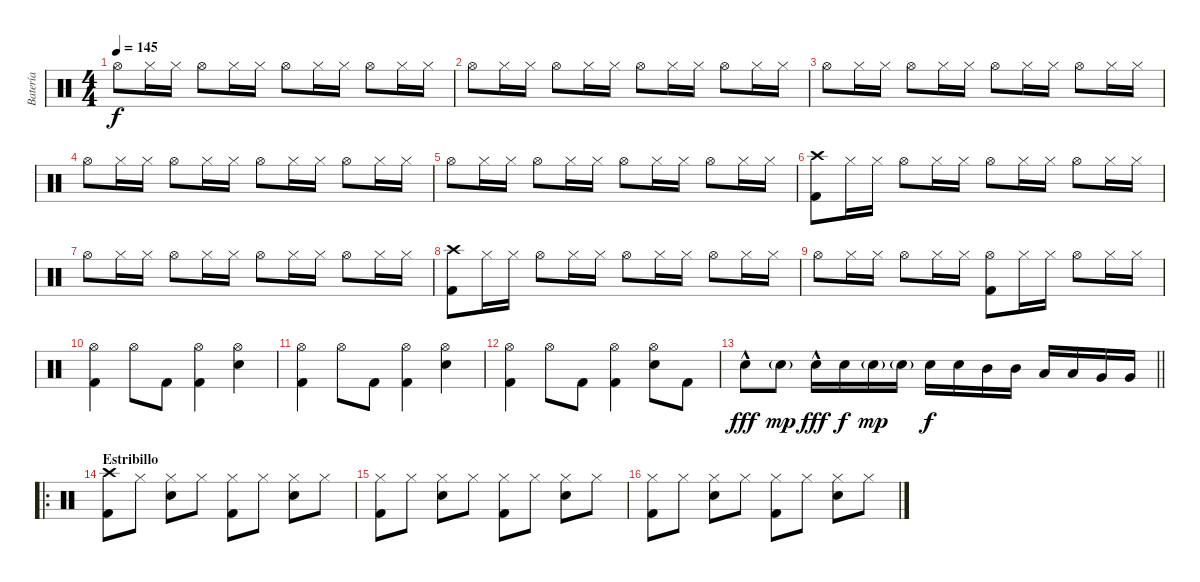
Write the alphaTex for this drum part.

\track ("Batería" "Batería") {instrument percussion}
\staff {score}
\articulation defaults
\ts (4 4)
\tempo 145
\clef neutral
\ks c "Hi-Hat (open)".8{dy f} "Hi-Hat (closed)".16 "Hi-Hat (closed)".16 "Hi-Hat (open)".8 "Hi-Hat (closed)".16 "Hi-Hat (closed)".16 "Hi-Hat (open)".8 "Hi-Hat (closed)".16 "Hi-Hat (closed)".16 "Hi-Hat (open)".8 "Hi-Hat (closed)".16 "Hi-Hat (closed)".16
|
"Hi-Hat (open)".8 "Hi-Hat (closed)".16 "Hi-Hat (closed)".16 "Hi-Hat (open)".8 "Hi-Hat (closed)".16 "Hi-Hat (closed)".16 "Hi-Hat (open)".8 "Hi-Hat (closed)".16 "Hi-Hat (closed)".16 "Hi-Hat (open)".8 "Hi-Hat (closed)".16 "Hi-Hat (closed)".16 |
"Hi-Hat (open)".8 "Hi-Hat (closed)".16 "Hi-Hat (closed)".16 "Hi-Hat (open)".8 "Hi-Hat (closed)".16 "Hi-Hat (closed)".16 "Hi-Hat (open)".8 "Hi-Hat (closed)".16 "Hi-Hat (closed)".16 "Hi-Hat (open)".8 "Hi-Hat (closed)".16 "Hi-Hat (closed)".16 |
"Hi-Hat (open)".8 "Hi-Hat (closed)".16 "Hi-Hat (closed)".16 "Hi-Hat (open)".8 "Hi-Hat (closed)".16 "Hi-Hat (closed)".16 "Hi-Hat (open)".8 "Hi-Hat (closed)".16 "Hi-Hat (closed)".16 "Hi-Hat (open)".8 "Hi-Hat (closed)".16 "Hi-Hat (closed)".16 |
"Hi-Hat (open)".8 "Hi-Hat (closed)".16 "Hi-Hat (closed)".16 "Hi-Hat (open)".8 "Hi-Hat (closed)".16 "Hi-Hat (closed)".16 "Hi-Hat (open)".8 "Hi-Hat (closed)".16 "Hi-Hat (closed)".16 "Hi-Hat (open)".8 "Hi-Hat (closed)".16 "Hi-Hat (closed)".16 |
("Crash high (hit)" "Kick (hit) 2").8 "Hi-Hat (closed)".16 "Hi-Hat (closed)".16 "Hi-Hat (open)".8 "Hi-Hat (closed)".16 "Hi-Hat (closed)".16 "Hi-Hat (open)".8 "Hi-Hat (closed)".16 "Hi-Hat (closed)".16 "Hi-Hat (open)".8 "Hi-Hat (closed)".16 "Hi-Hat (closed)".16 |
"Hi-Hat (open)".8 "Hi-Hat (closed)".16 "Hi-Hat (closed)".16 "Hi-Hat (open)".8 "Hi-Hat (closed)".16 "Hi-Hat (closed)".16 "Hi-Hat (open)".8 "Hi-Hat (closed)".16 "Hi-Hat (closed)".16 "Hi-Hat (open)".8 "Hi-Hat (closed)".16 "Hi-Hat (closed)".16 |
("Crash high (hit)" "Kick (hit) 2").8 "Hi-Hat (closed)".16 "Hi-Hat (closed)".16 "Hi-Hat (open)".8 "Hi-Hat (closed)".16 "Hi-Hat (closed)".16 "Hi-Hat (open)".8 "Hi-Hat (closed)".16 "Hi-Hat (closed)".16 "Hi-Hat (open)".8 "Hi-Hat (closed)".16 "Hi-Hat (closed)".16 |
"Hi-Hat (open)".8 "Hi-Hat (closed)".16 "Hi-Hat (closed)".16 "Hi-Hat (open)".8 "Hi-Hat (closed)".16 "Hi-Hat (closed)".16 ("Hi-Hat (open)" "Kick (hit) 2").8 "Hi-Hat (closed)".16 "Hi-Hat (closed)".16 "Hi-Hat (open)".8 "Hi-Hat (closed)".16 "Hi-Hat (closed)".16 |
("Hi-Hat (open)" "Kick (hit) 2").4{volume 16} "Hi-Hat (open)".8 "Kick (hit) 2".8 ("Hi-Hat (open)" "Kick (hit) 2").4 ("Hi-Hat (open)" "Snare (hit) 2").4 |
("Hi-Hat (open)" "Kick (hit) 2").4 "Hi-Hat (open)".8 "Kick (hit) 2".8 ("Hi-Hat (open)" "Kick (hit) 2").4 ("Hi-Hat (open)" "Snare (hit) 2").4 |
("Hi-Hat (open)" "Kick (hit) 2").4 "Hi-Hat (open)".8 "Kick (hit) 2".8 ("Hi-Hat (open)" "Kick (hit) 2").4 ("Hi-Hat (open)" "Snare (hit) 2").8 "Kick (hit) 2".8 |
\barLineRight lightlight "Snare (hit) 2"{hac}.8{dy fff} "Snare (hit) 2"{g}.8{dy mp} "Snare (hit) 2"{hac}.16{dy fff} "Snare (hit) 2".16{dy f} "Snare (hit) 2"{g}.16{dy mp} "Snare (hit) 2"{g}.16 "Snare (hit) 2".16{dy f} "Snare (hit) 2".16 "Mid Tom (hit)".16 "Mid Tom (hit)".16 "Low Tom (hit)".16 "Low Tom (hit)".16 "Very Low Tom (hit)".16 "Very Low Tom (hit)".16
|
\ro
\section ("" "Estribillo")
("Crash high (hit)" "Kick (hit) 2").8{volume 13} "Hi-Hat (closed)".8 ("Hi-Hat (closed)" "Snare (hit) 2").8 "Hi-Hat (closed)".8 ("Hi-Hat (closed)" "Kick (hit) 2").8 "Hi-Hat (closed)".8 ("Hi-Hat (closed)" "Snare (hit) 2").8 "Hi-Hat (closed)".8 |
("Hi-Hat (closed)" "Kick (hit) 2").8 "Hi-Hat (closed)".8 ("Hi-Hat (closed)" "Snare (hit) 2").8 "Hi-Hat (closed)".8 ("Hi-Hat (closed)" "Kick (hit) 2").8 "Hi-Hat (closed)".8 ("Hi-Hat (closed)" "Snare (hit) 2").8 "Hi-Hat (closed)".8 |
("Hi-Hat (closed)" "Kick (hit) 2").8 "Hi-Hat (closed)".8 ("Hi-Hat (closed)" "Snare (hit) 2").8 "Hi-Hat (closed)".8 ("Hi-Hat (closed)" "Kick (hit) 2").8 "Hi-Hat (closed)".8 ("Hi-Hat (closed)" "Snare (hit) 2").8 "Hi-Hat (closed)".8
